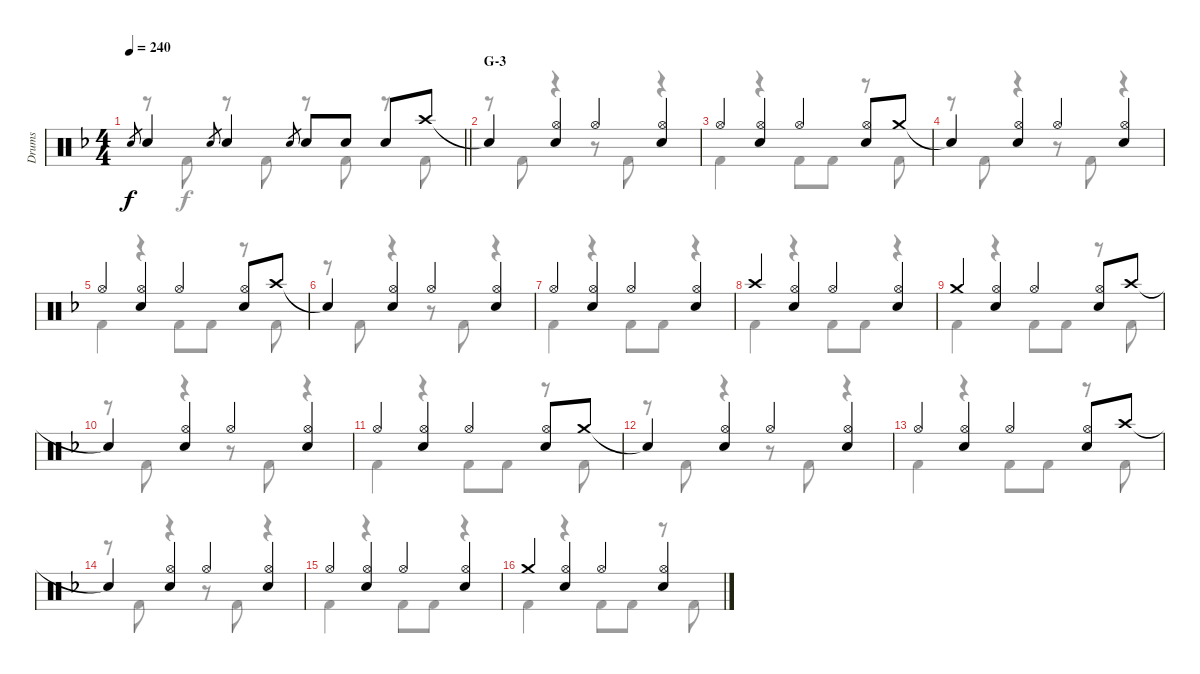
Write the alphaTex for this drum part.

\track ("Drums" "Drums") {instrument percussion}
\staff {score}
\articulation defaults
\voice
\ts (4 4)
\tempo 240
\clef neutral
\barLineRight lightlight
\ks f "Snare (hit) 2".8{gr dy f} "Snare (hit) 2".4 "Snare (hit) 2".8{gr} "Snare (hit) 2".4 "Snare (hit) 2".8{gr} "Snare (hit) 2".8 "Snare (hit) 2".8 "Snare (hit) 2".8 "Crash high (hit)".8
|
\section ("" "G-3")
"Snare (hit)"{t}.4 ("Hi-Hat (open)" "Snare (hit) 2").4 "Hi-Hat (open)".4 ("Hi-Hat (open)" "Snare (hit) 2").4 |
"Hi-Hat (open)".4 ("Hi-Hat (open)" "Snare (hit) 2").4 "Hi-Hat (open)".4 ("Hi-Hat (open)" "Snare (hit) 2").8 "Crash medium (hit)".8 |
"Snare (hit)"{t}.4 ("Hi-Hat (open)" "Snare (hit) 2").4 "Hi-Hat (open)".4 ("Hi-Hat (open)" "Snare (hit) 2").4 |
"Hi-Hat (open)".4 ("Hi-Hat (open)" "Snare (hit) 2").4 "Hi-Hat (open)".4 ("Hi-Hat (open)" "Snare (hit) 2").8 "Crash high (hit)".8 |
"Snare (hit)"{t}.4 ("Hi-Hat (open)" "Snare (hit) 2").4 "Hi-Hat (open)".4 ("Hi-Hat (open)" "Snare (hit) 2").4 |
"Hi-Hat (open)".4 ("Hi-Hat (open)" "Snare (hit) 2").4 "Hi-Hat (open)".4 ("Hi-Hat (open)" "Snare (hit) 2").4 |
"Crash high (hit)".4 ("Hi-Hat (open)" "Snare (hit) 2").4 "Hi-Hat (open)".4 ("Hi-Hat (open)" "Snare (hit) 2").4 |
"Crash medium (hit)".4 ("Hi-Hat (open)" "Snare (hit) 2").4 "Hi-Hat (open)".4 ("Hi-Hat (open)" "Snare (hit) 2").8 "Crash high (hit)".8 |
"Snare (hit)"{t}.4 ("Hi-Hat (open)" "Snare (hit) 2").4 "Hi-Hat (open)".4 ("Hi-Hat (open)" "Snare (hit) 2").4 |
"Hi-Hat (open)".4 ("Hi-Hat (open)" "Snare (hit) 2").4 "Hi-Hat (open)".4 ("Hi-Hat (open)" "Snare (hit) 2").8 "Crash medium (hit)".8 |
"Snare (hit)"{t}.4 ("Hi-Hat (open)" "Snare (hit) 2").4 "Hi-Hat (open)".4 ("Hi-Hat (open)" "Snare (hit) 2").4 |
"Hi-Hat (open)".4 ("Hi-Hat (open)" "Snare (hit) 2").4 "Hi-Hat (open)".4 ("Hi-Hat (open)" "Snare (hit) 2").8 "Crash high (hit)".8 |
"Snare (hit)"{t}.4 ("Hi-Hat (open)" "Snare (hit) 2").4 "Hi-Hat (open)".4 ("Hi-Hat (open)" "Snare (hit) 2").4 |
"Hi-Hat (open)".4 ("Hi-Hat (open)" "Snare (hit) 2").4 "Hi-Hat (open)".4 ("Hi-Hat (open)" "Snare (hit) 2").4 |
"Crash medium (hit)".4 ("Hi-Hat (open)" "Snare (hit) 2").4 "Hi-Hat (open)".4 ("Hi-Hat (open)" "Snare (hit) 2").4
\voice
\clef neutral
\ottava regular
\simile none
\barLineRight lightlight
\ks f
r.8{dy f} "Kick (hit) 2".8 r.8 "Kick (hit) 2".8 r.8 "Kick (hit) 2".8 r.8 "Kick (hit) 2".8 |
r.8 "Kick (hit) 2".8 r.4 r.8 "Kick (hit) 2".8 r.4 |
"Kick (hit) 2".4 r.4 "Kick (hit) 2".8 "Kick (hit) 2".8 r.8 "Kick (hit) 2".8 |
r.8 "Kick (hit) 2".8 r.4 r.8 "Kick (hit) 2".8 r.4 |
"Kick (hit) 2".4 r.4 "Kick (hit) 2".8 "Kick (hit) 2".8 r.8 "Kick (hit) 2".8 |
r.8 "Kick (hit) 2".8 r.4 r.8 "Kick (hit) 2".8 r.4 |
"Kick (hit) 2".4 r.4 "Kick (hit) 2".8 "Kick (hit) 2".8 r.4 |
"Kick (hit) 2".4 r.4 "Kick (hit) 2".8 "Kick (hit) 2".8 r.4 |
"Kick (hit) 2".4 r.4 "Kick (hit) 2".8 "Kick (hit) 2".8 r.8 "Kick (hit) 2".8 |
r.8 "Kick (hit) 2".8 r.4 r.8 "Kick (hit) 2".8 r.4 |
"Kick (hit) 2".4 r.4 "Kick (hit) 2".8 "Kick (hit) 2".8 r.8 "Kick (hit) 2".8 |
r.8 "Kick (hit) 2".8 r.4 r.8 "Kick (hit) 2".8 r.4 |
"Kick (hit) 2".4 r.4 "Kick (hit) 2".8 "Kick (hit) 2".8 r.8 "Kick (hit) 2".8 |
r.8 "Kick (hit) 2".8 r.4 r.8 "Kick (hit) 2".8 r.4 |
"Kick (hit) 2".4 r.4 "Kick (hit) 2".8 "Kick (hit) 2".8 r.4 |
"Kick (hit) 2".4 r.4 "Kick (hit) 2".8 "Kick (hit) 2".8 r.8 "Kick (hit) 2".8
